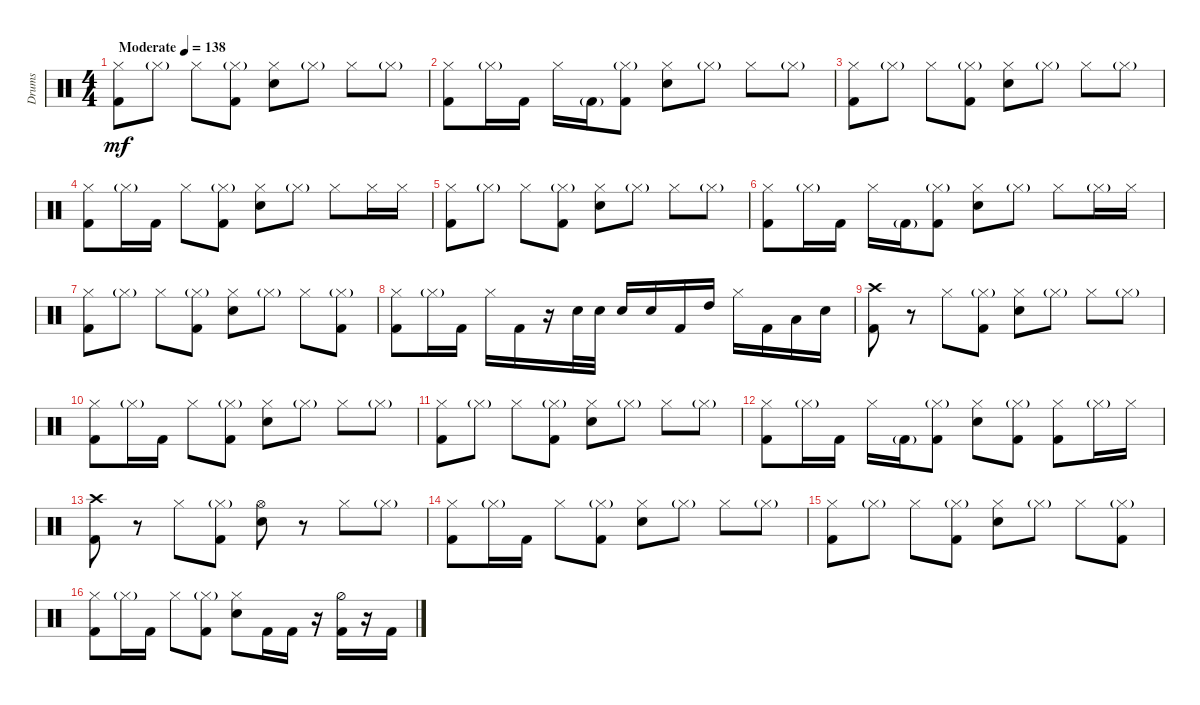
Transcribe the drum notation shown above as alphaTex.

\track ("Drums" "Drums") {instrument percussion}
\staff {score}
\articulation defaults
\ts (4 4)
\tempo (138 "Moderate")
\clef neutral
\ks c
("Hi-Hat (closed)" "Kick (hit) 2").8{dy mf} "Hi-Hat (closed)"{g}.8 "Hi-Hat (closed)".8 ("Hi-Hat (closed)"{g} "Kick (hit) 2").8 ("Hi-Hat (closed)" "Snare (hit) 2").8 "Hi-Hat (closed)"{g}.8 "Hi-Hat (closed)".8 "Hi-Hat (closed)"{g}.8 |
("Hi-Hat (closed)" "Kick (hit) 2").8 "Hi-Hat (closed)"{g}.16 "Kick (hit) 2".16 "Hi-Hat (closed)".16 "Kick (hit) 2"{g}.16 ("Hi-Hat (closed)"{g} "Kick (hit) 2").8 ("Hi-Hat (closed)" "Snare (hit) 2").8 "Hi-Hat (closed)"{g}.8 "Hi-Hat (closed)".8 "Hi-Hat (closed)"{g}.8 |
("Hi-Hat (closed)" "Kick (hit) 2").8 "Hi-Hat (closed)"{g}.8 "Hi-Hat (closed)".8 ("Hi-Hat (closed)"{g} "Kick (hit) 2").8 ("Hi-Hat (closed)" "Snare (hit) 2").8 "Hi-Hat (closed)"{g}.8 "Hi-Hat (closed)".8 "Hi-Hat (closed)"{g}.8 |
("Hi-Hat (closed)" "Kick (hit) 2").8 "Hi-Hat (closed)"{g}.16 "Kick (hit) 2".16 "Hi-Hat (closed)".8 ("Hi-Hat (closed)"{g} "Kick (hit) 2").8 ("Hi-Hat (closed)" "Snare (hit) 2").8 "Hi-Hat (closed)"{g}.8 "Hi-Hat (closed)".8 "Hi-Hat (closed)".16 "Hi-Hat (closed)".16 |
("Hi-Hat (closed)" "Kick (hit) 2").8 "Hi-Hat (closed)"{g}.8 "Hi-Hat (closed)".8 ("Hi-Hat (closed)"{g} "Kick (hit) 2").8 ("Hi-Hat (closed)" "Snare (hit) 2").8 "Hi-Hat (closed)"{g}.8 "Hi-Hat (closed)".8 "Hi-Hat (closed)"{g}.8 |
("Hi-Hat (closed)" "Kick (hit) 2").8 "Hi-Hat (closed)"{g}.16 "Kick (hit) 2".16 "Hi-Hat (closed)".16 "Kick (hit) 2"{g}.16 ("Hi-Hat (closed)"{g} "Kick (hit) 2").8 ("Hi-Hat (closed)" "Snare (hit) 2").8 "Hi-Hat (closed)"{g}.8 "Hi-Hat (closed)".8 "Hi-Hat (closed)"{g}.16 "Hi-Hat (closed)".16 |
("Hi-Hat (closed)" "Kick (hit) 2").8 "Hi-Hat (closed)"{g}.8 "Hi-Hat (closed)".8 ("Hi-Hat (closed)"{g} "Kick (hit) 2").8 ("Hi-Hat (closed)" "Snare (hit) 2").8 "Hi-Hat (closed)"{g}.8 "Hi-Hat (closed)".8 ("Hi-Hat (closed)"{g} "Kick (hit) 2").8 |
("Hi-Hat (closed)" "Kick (hit) 2").8 "Hi-Hat (closed)"{g}.16 "Kick (hit) 2".16 "Hi-Hat (closed)".16 "Kick (hit) 2".16 r.16 "Snare (hit) 2".32 "Snare (hit) 2".32 "Snare (hit) 2".16 "Snare (hit) 2".16 "Kick (hit) 2".16 "High Tom (hit)".16 "Hi-Hat (closed)".16 "Kick (hit) 2".16 "Low Tom (hit)".16 "Snare (hit) 2".16 |
("Crash high (hit)" "Kick (hit) 2").8 r.8 "Hi-Hat (closed)".8 ("Hi-Hat (closed)"{g} "Kick (hit) 2").8 ("Hi-Hat (closed)" "Snare (hit) 2").8 "Hi-Hat (closed)"{g}.8 "Hi-Hat (closed)".8 "Hi-Hat (closed)"{g}.8 |
("Hi-Hat (closed)" "Kick (hit) 2").8 "Hi-Hat (closed)"{g}.16 "Kick (hit) 2".16 "Hi-Hat (closed)".8 ("Hi-Hat (closed)"{g} "Kick (hit) 2").8 ("Hi-Hat (closed)" "Snare (hit) 2").8 "Hi-Hat (closed)"{g}.8 "Hi-Hat (closed)".8 "Hi-Hat (closed)"{g}.8 |
("Hi-Hat (closed)" "Kick (hit) 2").8 "Hi-Hat (closed)"{g}.8 "Hi-Hat (closed)".8 ("Hi-Hat (closed)"{g} "Kick (hit) 2").8 ("Hi-Hat (closed)" "Snare (hit) 2").8 "Hi-Hat (closed)"{g}.8 "Hi-Hat (closed)".8 "Hi-Hat (closed)"{g}.8 |
("Hi-Hat (closed)" "Kick (hit) 2").8 "Hi-Hat (closed)"{g}.16 "Kick (hit) 2".16 "Hi-Hat (closed)".16 "Kick (hit) 2"{g}.16 ("Hi-Hat (closed)"{g} "Kick (hit) 2").8 ("Hi-Hat (closed)" "Snare (hit) 2").8 ("Hi-Hat (closed)"{g} "Kick (hit) 2").8 ("Hi-Hat (closed)" "Kick (hit) 2").8 "Hi-Hat (closed)"{g}.16 "Hi-Hat (closed)".16 |
("Crash high (hit)" "Kick (hit) 2").8 r.8 "Hi-Hat (closed)".8 ("Hi-Hat (closed)"{g} "Kick (hit) 2").8 ("Hi-Hat (open)" "Snare (hit) 2").8 r.8 "Hi-Hat (closed)".8 "Hi-Hat (closed)"{g}.8 |
("Hi-Hat (closed)" "Kick (hit) 2").8 "Hi-Hat (closed)"{g}.16 "Kick (hit) 2".16 "Hi-Hat (closed)".8 ("Hi-Hat (closed)"{g} "Kick (hit) 2").8 ("Hi-Hat (closed)" "Snare (hit) 2").8 "Hi-Hat (closed)"{g}.8 "Hi-Hat (closed)".8 "Hi-Hat (closed)"{g}.8 |
("Hi-Hat (closed)" "Kick (hit) 2").8 "Hi-Hat (closed)"{g}.8 "Hi-Hat (closed)".8 ("Hi-Hat (closed)"{g} "Kick (hit) 2").8 ("Hi-Hat (closed)" "Snare (hit) 2").8 "Hi-Hat (closed)"{g}.8 "Hi-Hat (closed)".8 ("Hi-Hat (closed)"{g} "Kick (hit) 2").8 |
("Hi-Hat (closed)" "Kick (hit) 2").8 "Hi-Hat (closed)"{g}.16 "Kick (hit) 2".16 "Hi-Hat (closed)".8 ("Hi-Hat (closed)"{g} "Kick (hit) 2").8 ("Hi-Hat (closed)" "Snare (hit) 2").8 "Kick (hit) 2".16 "Kick (hit) 2".16 r.16 ("Hi-Hat (half)" "Kick (hit) 2").16 r.16 "Kick (hit) 2".16
